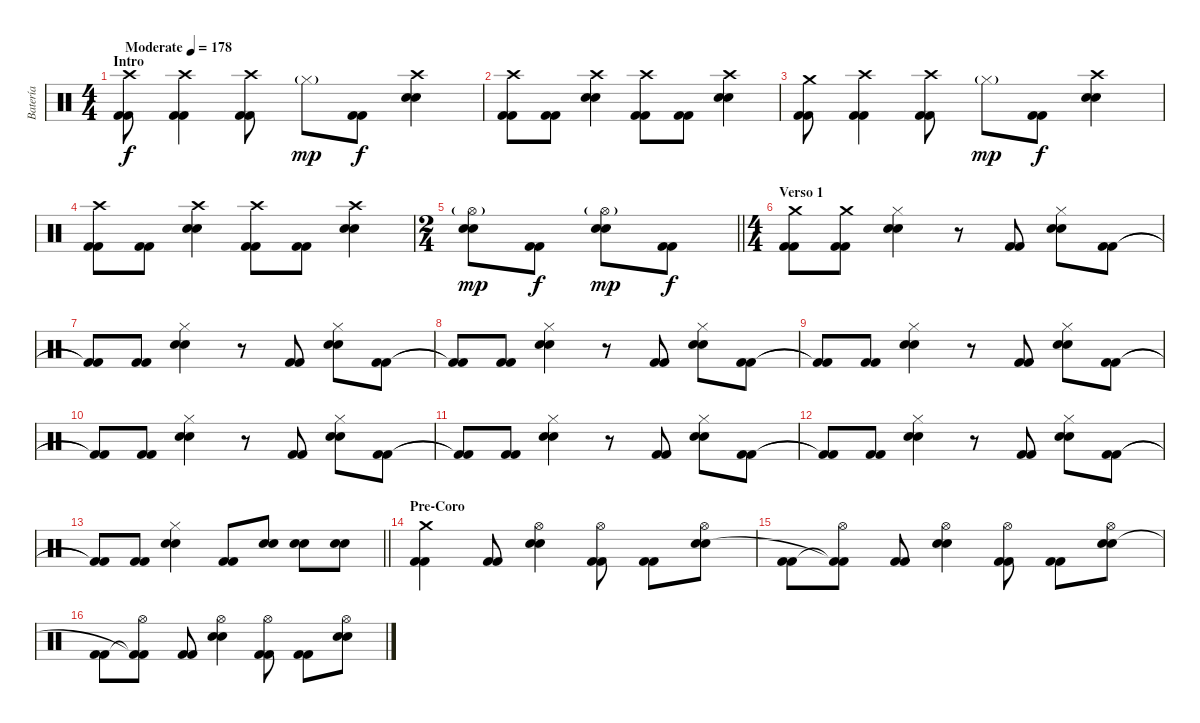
\track ("Batería" "Batería") {instrument percussion}
\staff {score}
\articulation defaults
\ts (4 4)
\section ("" "Intro")
\tempo (178 "Moderate")
\clef neutral
\ks c
("Crash high (hit)" "Kick (hit) 2" "Kick (hit) 2").8{dy f} ("Crash high (hit)" "Kick (hit) 2" "Kick (hit) 2").4 ("Crash high (hit)" "Kick (hit) 2" "Kick (hit) 2").8 "Hi-Hat (closed)"{g}.8{dy mp} ("Kick (hit) 2" "Kick (hit) 2").8{dy f} ("Crash high (hit)" "Electric Snare (hit)" "Electric Snare (hit)").4 |
("Crash high (hit)" "Kick (hit) 2" "Kick (hit) 2").8 ("Kick (hit) 2" "Kick (hit) 2").8 ("Crash high (hit)" "Electric Snare (hit)" "Electric Snare (hit)").4 ("Crash high (hit)" "Kick (hit) 2" "Kick (hit) 2").8 ("Kick (hit) 2" "Kick (hit) 2").8 ("Crash high (hit)" "Electric Snare (hit)" "Electric Snare (hit)").4 |
("Crash medium (hit)" "Kick (hit) 2" "Kick (hit) 2").8 ("Crash high (hit)" "Kick (hit) 2" "Kick (hit) 2").4 ("Crash high (hit)" "Kick (hit) 2" "Kick (hit) 2").8 "Hi-Hat (closed)"{g}.8{dy mp} ("Kick (hit) 2" "Kick (hit) 2").8{dy f} ("Crash high (hit)" "Electric Snare (hit)" "Electric Snare (hit)").4 |
("Crash high (hit)" "Kick (hit) 2" "Kick (hit) 2").8 ("Kick (hit) 2" "Kick (hit) 2").8 ("Crash high (hit)" "Electric Snare (hit)" "Electric Snare (hit)").4 ("Crash high (hit)" "Kick (hit) 2" "Kick (hit) 2").8 ("Kick (hit) 2" "Kick (hit) 2").8 ("Crash high (hit)" "Electric Snare (hit)" "Electric Snare (hit)").4 |
\ts (2 4)
\barLineRight lightlight
("Hi-Hat (open)"{g} "Electric Snare (hit)" "Electric Snare (hit)").8{dy mp} ("Kick (hit) 2" "Kick (hit) 2").8{dy f} ("Hi-Hat (open)"{g} "Electric Snare (hit)" "Electric Snare (hit)").8{dy mp} ("Kick (hit) 2" "Kick (hit) 2").8{dy f} |
\ts (4 4)
\section ("" "Verso 1")
("Crash medium (hit)" "Kick (hit) 2" "Kick (hit) 2").8 ("Crash medium (hit)" "Kick (hit) 2" "Kick (hit) 2").8 ("Hi-Hat (closed)" "Electric Snare (hit)" "Electric Snare (hit)").4 r.8 ("Kick (hit) 2" "Kick (hit) 2").8 ("Hi-Hat (closed)" "Electric Snare (hit)" "Electric Snare (hit)").8 ("Kick (hit) 2" "Kick (hit) 2").8 |
("Kick (hit) 2"{t} "Kick (hit) 2"{t}).8 ("Kick (hit) 2" "Kick (hit) 2").8 ("Hi-Hat (closed)" "Electric Snare (hit)" "Electric Snare (hit)").4 r.8 ("Kick (hit) 2" "Kick (hit) 2").8 ("Hi-Hat (closed)" "Electric Snare (hit)" "Electric Snare (hit)").8 ("Kick (hit) 2" "Kick (hit) 2").8 |
("Kick (hit) 2"{t} "Kick (hit) 2"{t}).8 ("Kick (hit) 2" "Kick (hit) 2").8 ("Hi-Hat (closed)" "Electric Snare (hit)" "Electric Snare (hit)").4 r.8 ("Kick (hit) 2" "Kick (hit) 2").8 ("Hi-Hat (closed)" "Electric Snare (hit)" "Electric Snare (hit)").8 ("Kick (hit) 2" "Kick (hit) 2").8 |
("Kick (hit) 2"{t} "Kick (hit) 2"{t}).8 ("Kick (hit) 2" "Kick (hit) 2").8 ("Hi-Hat (closed)" "Electric Snare (hit)" "Electric Snare (hit)").4 r.8 ("Kick (hit) 2" "Kick (hit) 2").8 ("Hi-Hat (closed)" "Electric Snare (hit)" "Electric Snare (hit)").8 ("Kick (hit) 2" "Kick (hit) 2").8 |
("Kick (hit) 2"{t} "Kick (hit) 2"{t}).8 ("Kick (hit) 2" "Kick (hit) 2").8 ("Hi-Hat (closed)" "Electric Snare (hit)" "Electric Snare (hit)").4 r.8 ("Kick (hit) 2" "Kick (hit) 2").8 ("Hi-Hat (closed)" "Electric Snare (hit)" "Electric Snare (hit)").8 ("Kick (hit) 2" "Kick (hit) 2").8 |
("Kick (hit) 2"{t} "Kick (hit) 2"{t}).8 ("Kick (hit) 2" "Kick (hit) 2").8 ("Hi-Hat (closed)" "Electric Snare (hit)" "Electric Snare (hit)").4 r.8 ("Kick (hit) 2" "Kick (hit) 2").8 ("Hi-Hat (closed)" "Electric Snare (hit)" "Electric Snare (hit)").8 ("Kick (hit) 2" "Kick (hit) 2").8 |
("Kick (hit) 2"{t} "Kick (hit) 2"{t}).8 ("Kick (hit) 2" "Kick (hit) 2").8 ("Hi-Hat (closed)" "Electric Snare (hit)" "Electric Snare (hit)").4 r.8 ("Kick (hit) 2" "Kick (hit) 2").8 ("Hi-Hat (closed)" "Electric Snare (hit)" "Electric Snare (hit)").8 ("Kick (hit) 2" "Kick (hit) 2").8 |
\barLineRight lightlight
("Kick (hit) 2"{t} "Kick (hit) 2"{t}).8 ("Kick (hit) 2" "Kick (hit) 2").8 ("Hi-Hat (closed)" "Electric Snare (hit)" "Electric Snare (hit)").4 ("Kick (hit) 2" "Kick (hit) 2").8 ("Electric Snare (hit)" "Electric Snare (hit)").8 ("Electric Snare (hit)" "Electric Snare (hit)").8 ("Electric Snare (hit)" "Electric Snare (hit)").8 |
\section ("" "Pre-Coro")
("Crash medium (hit)" "Kick (hit) 2" "Kick (hit) 2").4 ("Kick (hit) 2" "Kick (hit) 2").8 ("Hi-Hat (open)" "Electric Snare (hit)" "Electric Snare (hit)").4 ("Hi-Hat (open)" "Kick (hit) 2" "Kick (hit) 2").8 ("Kick (hit) 2" "Kick (hit) 2").8 ("Hi-Hat (open)" "Electric Snare (hit)" "Electric Snare (hit)").8 |
("Kick (hit) 2" "Kick (hit) 2").8 ("Hi-Hat (open)" "Kick (hit) 2"{t} "Kick (hit) 2"{t}).8 ("Kick (hit) 2" "Kick (hit) 2").8 ("Hi-Hat (open)" "Electric Snare (hit)" "Electric Snare (hit)").4 ("Hi-Hat (open)" "Kick (hit) 2" "Kick (hit) 2").8 ("Kick (hit) 2" "Kick (hit) 2").8 ("Hi-Hat (open)" "Electric Snare (hit)" "Electric Snare (hit)").8 |
("Kick (hit) 2" "Kick (hit) 2").8 ("Hi-Hat (open)" "Kick (hit) 2"{t} "Kick (hit) 2"{t}).8 ("Kick (hit) 2" "Kick (hit) 2").8 ("Hi-Hat (open)" "Electric Snare (hit)" "Electric Snare (hit)").4 ("Hi-Hat (open)" "Kick (hit) 2" "Kick (hit) 2").8 ("Kick (hit) 2" "Kick (hit) 2").8 ("Hi-Hat (open)" "Electric Snare (hit)" "Electric Snare (hit)").8
